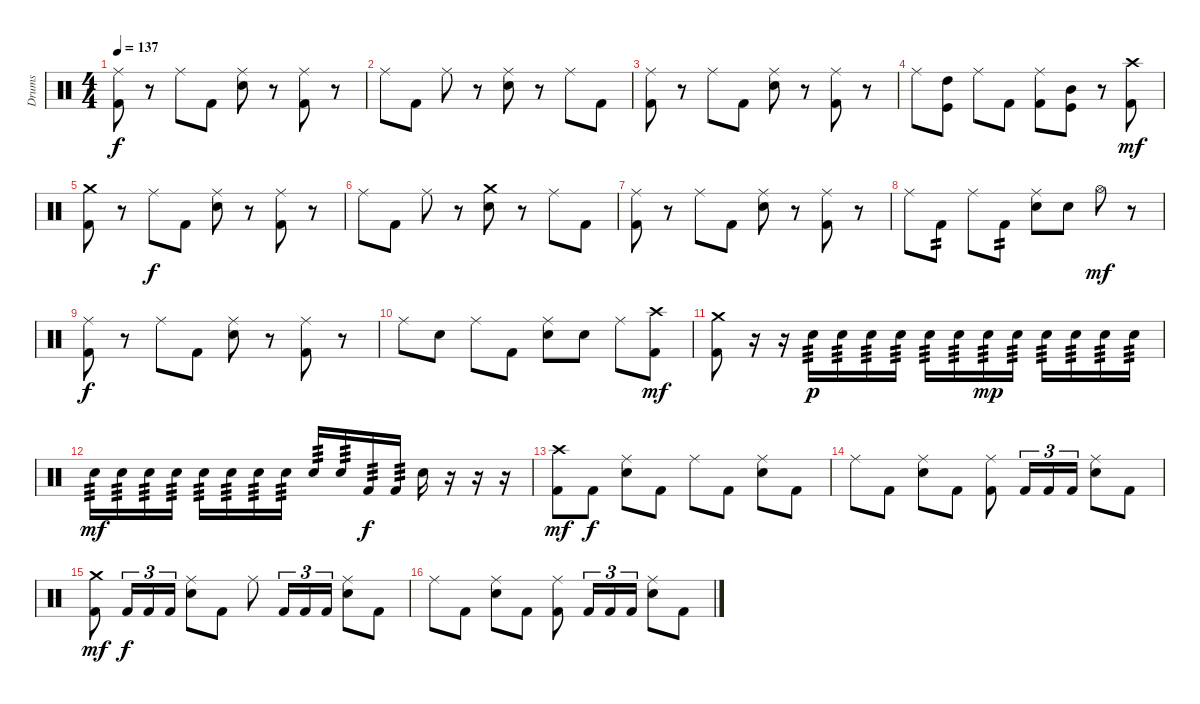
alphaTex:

\track ("Drums" "Drums") {instrument percussion}
\staff {score}
\articulation defaults
\ts (4 4)
\tempo 137
\clef neutral
\ks c
("Ride (middle)" "Kick (hit) 2").8{dy f} r.8 "Ride (middle)".8 "Kick (hit) 2".8 ("Ride (middle)" "Electric Snare (hit)").8 r.8 ("Ride (middle)" "Kick (hit) 2").8 r.8 |
"Ride (middle)".8 "Kick (hit) 2".8 "Ride (middle)".8 r.8 ("Ride (middle)" "Electric Snare (hit)").8 r.8 "Ride (middle)".8 "Kick (hit) 2".8 |
("Ride (middle)" "Kick (hit) 2").8 r.8 "Ride (middle)".8 "Kick (hit) 2".8 ("Ride (middle)" "Electric Snare (hit)").8 r.8 ("Ride (middle)" "Kick (hit) 2").8 r.8 |
"Ride (middle)".8 ("High Tom (hit)" "Kick (hit)").8 "Ride (middle)".8 "Kick (hit) 2".8 ("Ride (middle)" "Kick (hit) 2").8 ("Mid Tom (hit)" "Kick (hit)").8 r.8 ("Crash high (hit)" "Kick (hit) 2").8{dy mf} |
("Crash medium (hit)" "Kick (hit) 2").8 r.8 "Ride (middle)".8{dy f} "Kick (hit) 2".8 ("Ride (middle)" "Electric Snare (hit)").8 r.8 ("Ride (middle)" "Kick (hit) 2").8 r.8 |
"Ride (middle)".8 "Kick (hit) 2".8 "Ride (middle)".8 r.8 ("Crash medium (hit)" "Electric Snare (hit)").8 r.8 "Ride (middle)".8 "Kick (hit) 2".8 |
("Ride (middle)" "Kick (hit) 2").8 r.8 "Ride (middle)".8 "Kick (hit) 2".8 ("Ride (middle)" "Electric Snare (hit)").8 r.8 ("Ride (middle)" "Kick (hit) 2").8 r.8 |
"Ride (middle)".8 "Kick (hit) 2".8{tp 2} "Ride (middle)".8 "Kick (hit) 2".8{tp 2} ("Ride (middle)" "Electric Snare (hit)").8 "Electric Snare (hit)".8 "Hi-Hat (open)".8{dy mf} r.8 |
("Ride (middle)" "Kick (hit) 2").8{dy f} r.8 "Ride (middle)".8 "Kick (hit) 2".8 ("Ride (middle)" "Electric Snare (hit)").8 r.8 ("Ride (middle)" "Kick (hit) 2").8 r.8 |
"Ride (middle)".8 "Electric Snare (hit)".8 "Ride (middle)".8 "Kick (hit) 2".8 ("Ride (middle)" "Electric Snare (hit)").8 "Electric Snare (hit)".8 "Ride (middle)".8 ("Crash high (hit)" "Kick (hit) 2").8{dy mf} |
("Crash medium (hit)" "Kick (hit) 2").8 r.16 r.16 "Electric Snare (hit)".16{tp 3 dy p} "Electric Snare (hit)".16{tp 3} "Electric Snare (hit)".16{tp 3} "Electric Snare (hit)".16{tp 3} "Electric Snare (hit)".16{tp 3} "Electric Snare (hit)".16{tp 3} "Electric Snare (hit)".16{tp 3 dy mp} "Electric Snare (hit)".16{tp 3} "Electric Snare (hit)".16{tp 3} "Electric Snare (hit)".16{tp 3} "Electric Snare (hit)".16{tp 3} "Electric Snare (hit)".16{tp 3} |
"Electric Snare (hit)".16{tp 3 dy mf} "Electric Snare (hit)".16{tp 3} "Electric Snare (hit)".16{tp 3} "Electric Snare (hit)".16{tp 3} "Electric Snare (hit)".16{tp 3} "Electric Snare (hit)".16{tp 3} "Electric Snare (hit)".16{tp 3} "Electric Snare (hit)".16{tp 3} "Electric Snare (hit)".16{tp 3} "Electric Snare (hit)".16{tp 3} "Kick (hit) 2".16{tp 3 dy f} "Kick (hit) 2".16{tp 3} "Electric Snare (hit)".16 r.16 r.16 r.16 |
("Crash high (hit)" "Kick (hit) 2").8{dy mf} "Kick (hit) 2".8{dy f} ("Ride (middle)" "Electric Snare (hit)").8 "Kick (hit) 2".8 "Ride (middle)".8 "Kick (hit) 2".8 ("Ride (middle)" "Electric Snare (hit)").8 "Kick (hit) 2".8 |
"Ride (middle)".8 "Kick (hit) 2".8 ("Ride (middle)" "Electric Snare (hit)").8 "Kick (hit) 2".8 ("Ride (middle)" "Kick (hit) 2").8 "Kick (hit) 2".16{tu (3 2)} "Kick (hit) 2".16{tu (3 2)} "Kick (hit) 2".16{tu (3 2)} ("Ride (middle)" "Electric Snare (hit)").8 "Kick (hit) 2".8 |
("Crash medium (hit)" "Kick (hit) 2").8{dy mf} "Kick (hit) 2".16{tu (3 2) dy f} "Kick (hit) 2".16{tu (3 2)} "Kick (hit) 2".16{tu (3 2)} ("Ride (middle)" "Electric Snare (hit)").8 "Kick (hit) 2".8 "Ride (middle)".8 "Kick (hit) 2".16{tu (3 2)} "Kick (hit) 2".16{tu (3 2)} "Kick (hit) 2".16{tu (3 2)} ("Ride (middle)" "Electric Snare (hit)").8 "Kick (hit) 2".8 |
"Ride (middle)".8 "Kick (hit) 2".8 ("Ride (middle)" "Electric Snare (hit)").8 "Kick (hit) 2".8 ("Ride (middle)" "Kick (hit) 2").8 "Kick (hit) 2".16{tu (3 2)} "Kick (hit) 2".16{tu (3 2)} "Kick (hit) 2".16{tu (3 2)} ("Ride (middle)" "Electric Snare (hit)").8 "Kick (hit) 2".8
